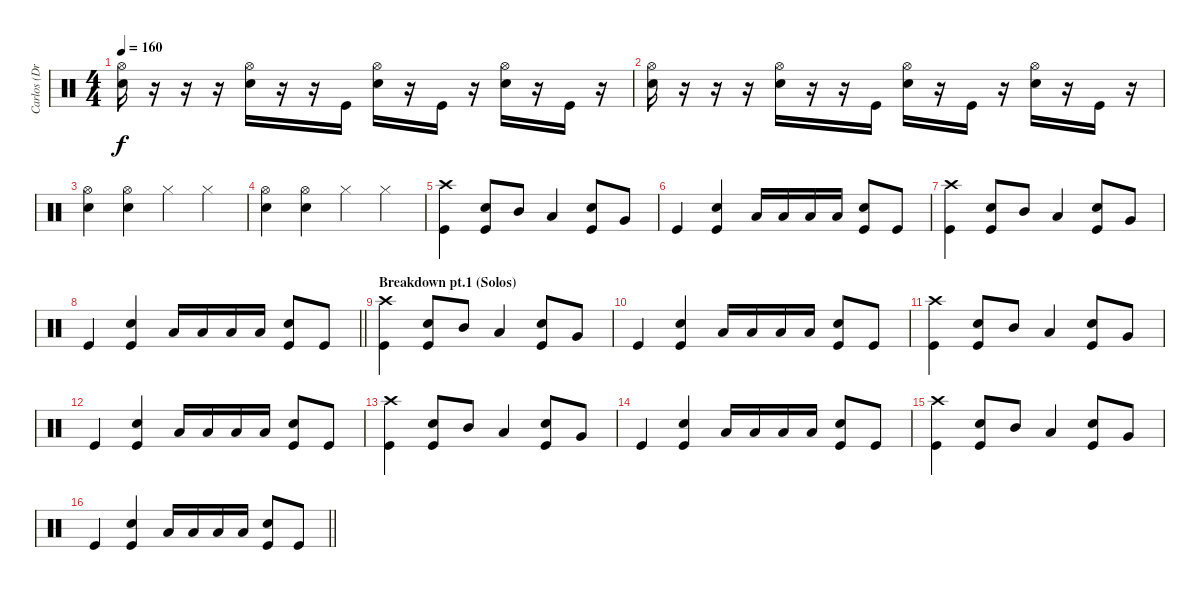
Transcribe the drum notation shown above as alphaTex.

\track ("Carlos (Drums)" "Carlos (Dr") {instrument percussion}
\staff {score}
\articulation defaults
\ts (4 4)
\tempo 160
\clef neutral
\ks c
("Hi-Hat (open)" "Snare (hit) 2").16{dy f} r.16 r.16 r.16 ("Hi-Hat (open)" "Snare (hit) 2").16 r.16 r.16 "Kick (hit)".16 ("Hi-Hat (open)" "Snare (hit) 2").16 r.16 "Kick (hit)".16 r.16 ("Hi-Hat (open)" "Snare (hit) 2").16 r.16 "Kick (hit)".16 r.16 |
("Hi-Hat (open)" "Snare (hit) 2").16 r.16 r.16 r.16 ("Hi-Hat (open)" "Snare (hit) 2").16 r.16 r.16 "Kick (hit)".16 ("Hi-Hat (open)" "Snare (hit) 2").16 r.16 "Kick (hit)".16 r.16 ("Hi-Hat (open)" "Snare (hit) 2").16 r.16 "Kick (hit)".16 r.16 |
("Hi-Hat (open)" "Snare (hit) 2").4 ("Hi-Hat (open)" "Snare (hit) 2").4 "Hi-Hat (closed)".4 "Hi-Hat (closed)".4 |
("Hi-Hat (open)" "Snare (hit) 2").4 ("Hi-Hat (open)" "Snare (hit) 2").4 "Hi-Hat (closed)".4 "Hi-Hat (closed)".4 |
("Crash high (hit)" "Kick (hit)").4 ("Snare (hit) 2" "Kick (hit)").8 "Mid Tom (hit)".8 "Low Tom (hit)".4 ("Snare (hit) 2" "Kick (hit)").8 "Very Low Tom (hit)".8 |
"Kick (hit)".4 ("Snare (hit) 2" "Kick (hit)").4 "Low Tom (hit)".16 "Low Tom (hit)".16 "Low Tom (hit)".16 "Low Tom (hit)".16 ("Snare (hit) 2" "Kick (hit)").8 "Kick (hit)".8 |
("Crash high (hit)" "Kick (hit)").4 ("Snare (hit) 2" "Kick (hit)").8 "Mid Tom (hit)".8 "Low Tom (hit)".4 ("Snare (hit) 2" "Kick (hit)").8 "Very Low Tom (hit)".8 |
\barLineRight lightlight "Kick (hit)".4
("Snare (hit) 2" "Kick (hit)").4 "Low Tom (hit)".16 "Low Tom (hit)".16 "Low Tom (hit)".16 "Low Tom (hit)".16 ("Snare (hit) 2" "Kick (hit)").8 "Kick (hit)".8 |
\section ("" "Breakdown pt.1 (Solos)")
("Crash high (hit)" "Kick (hit)").4 ("Snare (hit) 2" "Kick (hit)").8 "Mid Tom (hit)".8 "Low Tom (hit)".4 ("Snare (hit) 2" "Kick (hit)").8 "Very Low Tom (hit)".8 |
"Kick (hit)".4 ("Snare (hit) 2" "Kick (hit)").4 "Low Tom (hit)".16 "Low Tom (hit)".16 "Low Tom (hit)".16 "Low Tom (hit)".16 ("Snare (hit) 2" "Kick (hit)").8 "Kick (hit)".8 |
("Crash high (hit)" "Kick (hit)").4 ("Snare (hit) 2" "Kick (hit)").8 "Mid Tom (hit)".8 "Low Tom (hit)".4 ("Snare (hit) 2" "Kick (hit)").8 "Very Low Tom (hit)".8 |
"Kick (hit)".4 ("Snare (hit) 2" "Kick (hit)").4 "Low Tom (hit)".16 "Low Tom (hit)".16 "Low Tom (hit)".16 "Low Tom (hit)".16 ("Snare (hit) 2" "Kick (hit)").8 "Kick (hit)".8 |
("Crash high (hit)" "Kick (hit)").4 ("Snare (hit) 2" "Kick (hit)").8 "Mid Tom (hit)".8 "Low Tom (hit)".4 ("Snare (hit) 2" "Kick (hit)").8 "Very Low Tom (hit)".8 |
"Kick (hit)".4 ("Snare (hit) 2" "Kick (hit)").4 "Low Tom (hit)".16 "Low Tom (hit)".16 "Low Tom (hit)".16 "Low Tom (hit)".16 ("Snare (hit) 2" "Kick (hit)").8 "Kick (hit)".8 |
("Crash high (hit)" "Kick (hit)").4 ("Snare (hit) 2" "Kick (hit)").8 "Mid Tom (hit)".8 "Low Tom (hit)".4 ("Snare (hit) 2" "Kick (hit)").8 "Very Low Tom (hit)".8 |
\barLineRight lightlight "Kick (hit)".4
("Snare (hit) 2" "Kick (hit)").4 "Low Tom (hit)".16 "Low Tom (hit)".16 "Low Tom (hit)".16 "Low Tom (hit)".16 ("Snare (hit) 2" "Kick (hit)").8 "Kick (hit)".8
